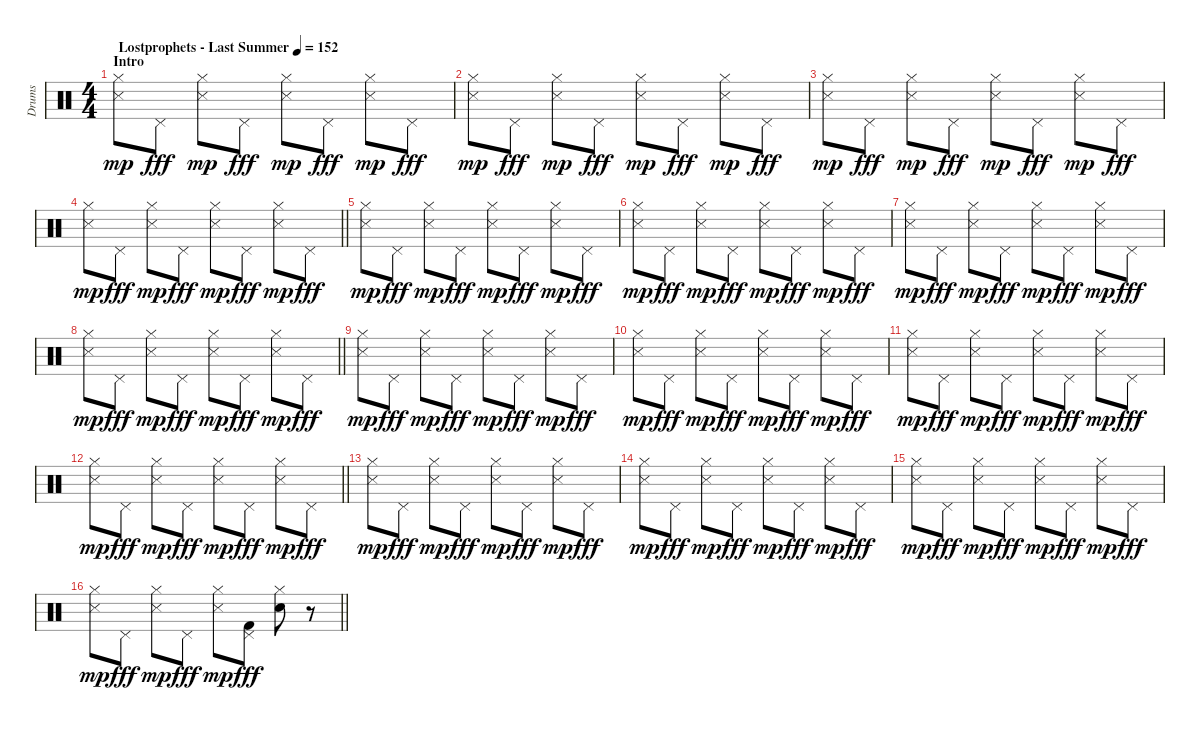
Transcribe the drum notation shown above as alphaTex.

\track ("Drums" "Drums") {instrument percussion}
\staff {score}
\articulation defaults
\ts (4 4)
\section ("" "Intro")
\tempo (152 "Lostprophets - Last Summer")
\clef neutral
\ks c
("Hi-Hat (closed)" "Snare (side stick) 3").8{dy mp} "Pedal Hi-Hat (hit)".8{dy fff} ("Hi-Hat (closed)" "Snare (side stick) 3").8{dy mp} "Pedal Hi-Hat (hit)".8{dy fff} ("Hi-Hat (closed)" "Snare (side stick) 3").8{dy mp} "Pedal Hi-Hat (hit)".8{dy fff} ("Hi-Hat (closed)" "Snare (side stick) 3").8{dy mp} "Pedal Hi-Hat (hit)".8{dy fff} |
("Hi-Hat (closed)" "Snare (side stick) 3").8{dy mp} "Pedal Hi-Hat (hit)".8{dy fff} ("Hi-Hat (closed)" "Snare (side stick) 3").8{dy mp} "Pedal Hi-Hat (hit)".8{dy fff} ("Hi-Hat (closed)" "Snare (side stick) 3").8{dy mp} "Pedal Hi-Hat (hit)".8{dy fff} ("Hi-Hat (closed)" "Snare (side stick) 3").8{dy mp} "Pedal Hi-Hat (hit)".8{dy fff} |
("Hi-Hat (closed)" "Snare (side stick) 3").8{dy mp} "Pedal Hi-Hat (hit)".8{dy fff} ("Hi-Hat (closed)" "Snare (side stick) 3").8{dy mp} "Pedal Hi-Hat (hit)".8{dy fff} ("Hi-Hat (closed)" "Snare (side stick) 3").8{dy mp} "Pedal Hi-Hat (hit)".8{dy fff} ("Hi-Hat (closed)" "Snare (side stick) 3").8{dy mp} "Pedal Hi-Hat (hit)".8{dy fff} |
\barLineRight lightlight
("Hi-Hat (closed)" "Snare (side stick) 3").8{dy mp} "Pedal Hi-Hat (hit)".8{dy fff} ("Hi-Hat (closed)" "Snare (side stick) 3").8{dy mp} "Pedal Hi-Hat (hit)".8{dy fff} ("Hi-Hat (closed)" "Snare (side stick) 3").8{dy mp} "Pedal Hi-Hat (hit)".8{dy fff} ("Hi-Hat (closed)" "Snare (side stick) 3").8{dy mp} "Pedal Hi-Hat (hit)".8{dy fff} |
("Hi-Hat (closed)" "Snare (side stick) 3").8{dy mp} "Pedal Hi-Hat (hit)".8{dy fff} ("Hi-Hat (closed)" "Snare (side stick) 3").8{dy mp} "Pedal Hi-Hat (hit)".8{dy fff} ("Hi-Hat (closed)" "Snare (side stick) 3").8{dy mp} "Pedal Hi-Hat (hit)".8{dy fff} ("Hi-Hat (closed)" "Snare (side stick) 3").8{dy mp} "Pedal Hi-Hat (hit)".8{dy fff} |
("Hi-Hat (closed)" "Snare (side stick) 3").8{dy mp} "Pedal Hi-Hat (hit)".8{dy fff} ("Hi-Hat (closed)" "Snare (side stick) 3").8{dy mp} "Pedal Hi-Hat (hit)".8{dy fff} ("Hi-Hat (closed)" "Snare (side stick) 3").8{dy mp} "Pedal Hi-Hat (hit)".8{dy fff} ("Hi-Hat (closed)" "Snare (side stick) 3").8{dy mp} "Pedal Hi-Hat (hit)".8{dy fff} |
("Hi-Hat (closed)" "Snare (side stick) 3").8{dy mp} "Pedal Hi-Hat (hit)".8{dy fff} ("Hi-Hat (closed)" "Snare (side stick) 3").8{dy mp} "Pedal Hi-Hat (hit)".8{dy fff} ("Hi-Hat (closed)" "Snare (side stick) 3").8{dy mp} "Pedal Hi-Hat (hit)".8{dy fff} ("Hi-Hat (closed)" "Snare (side stick) 3").8{dy mp} "Pedal Hi-Hat (hit)".8{dy fff} |
\barLineRight lightlight
("Hi-Hat (closed)" "Snare (side stick) 3").8{dy mp} "Pedal Hi-Hat (hit)".8{dy fff} ("Hi-Hat (closed)" "Snare (side stick) 3").8{dy mp} "Pedal Hi-Hat (hit)".8{dy fff} ("Hi-Hat (closed)" "Snare (side stick) 3").8{dy mp} "Pedal Hi-Hat (hit)".8{dy fff} ("Hi-Hat (closed)" "Snare (side stick) 3").8{dy mp} "Pedal Hi-Hat (hit)".8{dy fff} |
("Hi-Hat (closed)" "Snare (side stick) 3").8{dy mp} "Pedal Hi-Hat (hit)".8{dy fff} ("Hi-Hat (closed)" "Snare (side stick) 3").8{dy mp} "Pedal Hi-Hat (hit)".8{dy fff} ("Hi-Hat (closed)" "Snare (side stick) 3").8{dy mp} "Pedal Hi-Hat (hit)".8{dy fff} ("Hi-Hat (closed)" "Snare (side stick) 3").8{dy mp} "Pedal Hi-Hat (hit)".8{dy fff} |
("Hi-Hat (closed)" "Snare (side stick) 3").8{dy mp} "Pedal Hi-Hat (hit)".8{dy fff} ("Hi-Hat (closed)" "Snare (side stick) 3").8{dy mp} "Pedal Hi-Hat (hit)".8{dy fff} ("Hi-Hat (closed)" "Snare (side stick) 3").8{dy mp} "Pedal Hi-Hat (hit)".8{dy fff} ("Hi-Hat (closed)" "Snare (side stick) 3").8{dy mp} "Pedal Hi-Hat (hit)".8{dy fff} |
("Hi-Hat (closed)" "Snare (side stick) 3").8{dy mp} "Pedal Hi-Hat (hit)".8{dy fff} ("Hi-Hat (closed)" "Snare (side stick) 3").8{dy mp} "Pedal Hi-Hat (hit)".8{dy fff} ("Hi-Hat (closed)" "Snare (side stick) 3").8{dy mp} "Pedal Hi-Hat (hit)".8{dy fff} ("Hi-Hat (closed)" "Snare (side stick) 3").8{dy mp} "Pedal Hi-Hat (hit)".8{dy fff} |
\barLineRight lightlight
("Hi-Hat (closed)" "Snare (side stick) 3").8{dy mp} "Pedal Hi-Hat (hit)".8{dy fff} ("Hi-Hat (closed)" "Snare (side stick) 3").8{dy mp} "Pedal Hi-Hat (hit)".8{dy fff} ("Hi-Hat (closed)" "Snare (side stick) 3").8{dy mp} "Pedal Hi-Hat (hit)".8{dy fff} ("Hi-Hat (closed)" "Snare (side stick) 3").8{dy mp} "Pedal Hi-Hat (hit)".8{dy fff} |
("Hi-Hat (closed)" "Snare (side stick) 3").8{dy mp} "Pedal Hi-Hat (hit)".8{dy fff} ("Hi-Hat (closed)" "Snare (side stick) 3").8{dy mp} "Pedal Hi-Hat (hit)".8{dy fff} ("Hi-Hat (closed)" "Snare (side stick) 3").8{dy mp} "Pedal Hi-Hat (hit)".8{dy fff} ("Hi-Hat (closed)" "Snare (side stick) 3").8{dy mp} "Pedal Hi-Hat (hit)".8{dy fff} |
("Hi-Hat (closed)" "Snare (side stick) 3").8{dy mp} "Pedal Hi-Hat (hit)".8{dy fff} ("Hi-Hat (closed)" "Snare (side stick) 3").8{dy mp} "Pedal Hi-Hat (hit)".8{dy fff} ("Hi-Hat (closed)" "Snare (side stick) 3").8{dy mp} "Pedal Hi-Hat (hit)".8{dy fff} ("Hi-Hat (closed)" "Snare (side stick) 3").8{dy mp} "Pedal Hi-Hat (hit)".8{dy fff} |
("Hi-Hat (closed)" "Snare (side stick) 3").8{dy mp} "Pedal Hi-Hat (hit)".8{dy fff} ("Hi-Hat (closed)" "Snare (side stick) 3").8{dy mp} "Pedal Hi-Hat (hit)".8{dy fff} ("Hi-Hat (closed)" "Snare (side stick) 3").8{dy mp} "Pedal Hi-Hat (hit)".8{dy fff} ("Hi-Hat (closed)" "Snare (side stick) 3").8{dy mp} "Pedal Hi-Hat (hit)".8{dy fff} |
\barLineRight lightlight
("Hi-Hat (closed)" "Snare (side stick) 3").8{dy mp} "Pedal Hi-Hat (hit)".8{dy fff} ("Hi-Hat (closed)" "Snare (side stick) 3").8{dy mp} "Pedal Hi-Hat (hit)".8{dy fff} ("Hi-Hat (closed)" "Snare (side stick) 3").8{dy mp} ("Pedal Hi-Hat (hit)" "Kick (hit) 2").8{dy fff} ("Hi-Hat (closed)" "Electric Snare (hit)").8 r.8
